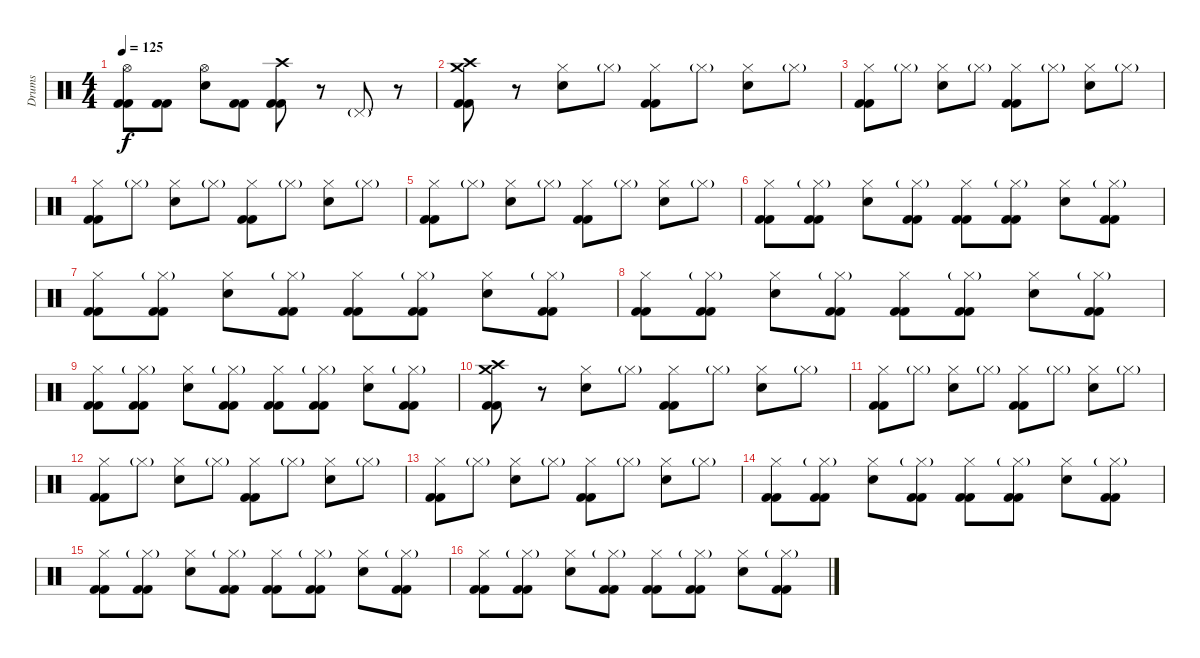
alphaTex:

\track ("Drums" "Drums") {instrument percussion}
\staff {score}
\articulation defaults
\ts (4 4)
\tempo 125
\clef neutral
\ks c
("Hi-Hat (open)" "Kick (hit) 2" "Kick (hit) 2").8{dy f} ("Kick (hit) 2" "Kick (hit) 2").8 ("Hi-Hat (open)" "Electric Snare (hit)").8 ("Kick (hit) 2" "Kick (hit) 2").8 ("Crash high (hit)" "Kick (hit) 2" "Kick (hit) 2").8 r.8 "Pedal Hi-Hat (hit)"{g}.8 r.8 |
("Crash high (hit)" "Crash medium (hit)" "Kick (hit) 2" "Kick (hit) 2").8 r.8 ("Hi-Hat (closed)" "Electric Snare (hit)").8 "Hi-Hat (closed)"{g}.8 ("Hi-Hat (closed)" "Kick (hit) 2" "Kick (hit) 2").8 "Hi-Hat (closed)"{g}.8 ("Hi-Hat (closed)" "Electric Snare (hit)").8 "Hi-Hat (closed)"{g}.8 |
("Hi-Hat (closed)" "Kick (hit) 2" "Kick (hit) 2").8 "Hi-Hat (closed)"{g}.8 ("Hi-Hat (closed)" "Electric Snare (hit)").8 "Hi-Hat (closed)"{g}.8 ("Hi-Hat (closed)" "Kick (hit) 2" "Kick (hit) 2").8 "Hi-Hat (closed)"{g}.8 ("Hi-Hat (closed)" "Electric Snare (hit)").8 "Hi-Hat (closed)"{g}.8 |
("Hi-Hat (closed)" "Kick (hit) 2" "Kick (hit) 2").8 "Hi-Hat (closed)"{g}.8 ("Hi-Hat (closed)" "Electric Snare (hit)").8 "Hi-Hat (closed)"{g}.8 ("Hi-Hat (closed)" "Kick (hit) 2" "Kick (hit) 2").8 "Hi-Hat (closed)"{g}.8 ("Hi-Hat (closed)" "Electric Snare (hit)").8 "Hi-Hat (closed)"{g}.8 |
("Hi-Hat (closed)" "Kick (hit) 2" "Kick (hit) 2").8 "Hi-Hat (closed)"{g}.8 ("Hi-Hat (closed)" "Electric Snare (hit)").8 "Hi-Hat (closed)"{g}.8 ("Hi-Hat (closed)" "Kick (hit) 2" "Kick (hit) 2").8 "Hi-Hat (closed)"{g}.8 ("Hi-Hat (closed)" "Electric Snare (hit)").8 "Hi-Hat (closed)"{g}.8 |
("Hi-Hat (closed)" "Kick (hit) 2" "Kick (hit) 2").8 ("Hi-Hat (closed)"{g} "Kick (hit) 2" "Kick (hit) 2").8 ("Hi-Hat (closed)" "Electric Snare (hit)").8 ("Hi-Hat (closed)"{g} "Kick (hit) 2" "Kick (hit) 2").8 ("Hi-Hat (closed)" "Kick (hit) 2" "Kick (hit) 2").8 ("Hi-Hat (closed)"{g} "Kick (hit) 2" "Kick (hit) 2").8 ("Hi-Hat (closed)" "Electric Snare (hit)").8 ("Hi-Hat (closed)"{g} "Kick (hit) 2" "Kick (hit) 2").8 |
("Hi-Hat (closed)" "Kick (hit) 2" "Kick (hit) 2").8 ("Hi-Hat (closed)"{g} "Kick (hit) 2" "Kick (hit) 2").8 ("Hi-Hat (closed)" "Electric Snare (hit)").8 ("Hi-Hat (closed)"{g} "Kick (hit) 2" "Kick (hit) 2").8 ("Hi-Hat (closed)" "Kick (hit) 2" "Kick (hit) 2").8 ("Hi-Hat (closed)"{g} "Kick (hit) 2" "Kick (hit) 2").8 ("Hi-Hat (closed)" "Electric Snare (hit)").8 ("Hi-Hat (closed)"{g} "Kick (hit) 2" "Kick (hit) 2").8 |
("Hi-Hat (closed)" "Kick (hit) 2" "Kick (hit) 2").8 ("Hi-Hat (closed)"{g} "Kick (hit) 2" "Kick (hit) 2").8 ("Hi-Hat (closed)" "Electric Snare (hit)").8 ("Hi-Hat (closed)"{g} "Kick (hit) 2" "Kick (hit) 2").8 ("Hi-Hat (closed)" "Kick (hit) 2" "Kick (hit) 2").8 ("Hi-Hat (closed)"{g} "Kick (hit) 2" "Kick (hit) 2").8 ("Hi-Hat (closed)" "Electric Snare (hit)").8 ("Hi-Hat (closed)"{g} "Kick (hit) 2" "Kick (hit) 2").8 |
("Hi-Hat (closed)" "Kick (hit) 2" "Kick (hit) 2").8 ("Hi-Hat (closed)"{g} "Kick (hit) 2" "Kick (hit) 2").8 ("Hi-Hat (closed)" "Electric Snare (hit)").8 ("Hi-Hat (closed)"{g} "Kick (hit) 2" "Kick (hit) 2").8 ("Hi-Hat (closed)" "Kick (hit) 2" "Kick (hit) 2").8 ("Hi-Hat (closed)"{g} "Kick (hit) 2" "Kick (hit) 2").8 ("Hi-Hat (closed)" "Electric Snare (hit)").8 ("Hi-Hat (closed)"{g} "Kick (hit) 2" "Kick (hit) 2").8 |
("Crash high (hit)" "Crash medium (hit)" "Kick (hit) 2" "Kick (hit) 2").8 r.8 ("Hi-Hat (closed)" "Electric Snare (hit)").8 "Hi-Hat (closed)"{g}.8 ("Hi-Hat (closed)" "Kick (hit) 2" "Kick (hit) 2").8 "Hi-Hat (closed)"{g}.8 ("Hi-Hat (closed)" "Electric Snare (hit)").8 "Hi-Hat (closed)"{g}.8 |
("Hi-Hat (closed)" "Kick (hit) 2" "Kick (hit) 2").8 "Hi-Hat (closed)"{g}.8 ("Hi-Hat (closed)" "Electric Snare (hit)").8 "Hi-Hat (closed)"{g}.8 ("Hi-Hat (closed)" "Kick (hit) 2" "Kick (hit) 2").8 "Hi-Hat (closed)"{g}.8 ("Hi-Hat (closed)" "Electric Snare (hit)").8 "Hi-Hat (closed)"{g}.8 |
("Hi-Hat (closed)" "Kick (hit) 2" "Kick (hit) 2").8 "Hi-Hat (closed)"{g}.8 ("Hi-Hat (closed)" "Electric Snare (hit)").8 "Hi-Hat (closed)"{g}.8 ("Hi-Hat (closed)" "Kick (hit) 2" "Kick (hit) 2").8 "Hi-Hat (closed)"{g}.8 ("Hi-Hat (closed)" "Electric Snare (hit)").8 "Hi-Hat (closed)"{g}.8 |
("Hi-Hat (closed)" "Kick (hit) 2" "Kick (hit) 2").8 "Hi-Hat (closed)"{g}.8 ("Hi-Hat (closed)" "Electric Snare (hit)").8 "Hi-Hat (closed)"{g}.8 ("Hi-Hat (closed)" "Kick (hit) 2" "Kick (hit) 2").8 "Hi-Hat (closed)"{g}.8 ("Hi-Hat (closed)" "Electric Snare (hit)").8 "Hi-Hat (closed)"{g}.8 |
("Hi-Hat (closed)" "Kick (hit) 2" "Kick (hit) 2").8 ("Hi-Hat (closed)"{g} "Kick (hit) 2" "Kick (hit) 2").8 ("Hi-Hat (closed)" "Electric Snare (hit)").8 ("Hi-Hat (closed)"{g} "Kick (hit) 2" "Kick (hit) 2").8 ("Hi-Hat (closed)" "Kick (hit) 2" "Kick (hit) 2").8 ("Hi-Hat (closed)"{g} "Kick (hit) 2" "Kick (hit) 2").8 ("Hi-Hat (closed)" "Electric Snare (hit)").8 ("Hi-Hat (closed)"{g} "Kick (hit) 2" "Kick (hit) 2").8 |
("Hi-Hat (closed)" "Kick (hit) 2" "Kick (hit) 2").8 ("Hi-Hat (closed)"{g} "Kick (hit) 2" "Kick (hit) 2").8 ("Hi-Hat (closed)" "Electric Snare (hit)").8 ("Hi-Hat (closed)"{g} "Kick (hit) 2" "Kick (hit) 2").8 ("Hi-Hat (closed)" "Kick (hit) 2" "Kick (hit) 2").8 ("Hi-Hat (closed)"{g} "Kick (hit) 2" "Kick (hit) 2").8 ("Hi-Hat (closed)" "Electric Snare (hit)").8 ("Hi-Hat (closed)"{g} "Kick (hit) 2" "Kick (hit) 2").8 |
("Hi-Hat (closed)" "Kick (hit) 2" "Kick (hit) 2").8 ("Hi-Hat (closed)"{g} "Kick (hit) 2" "Kick (hit) 2").8 ("Hi-Hat (closed)" "Electric Snare (hit)").8 ("Hi-Hat (closed)"{g} "Kick (hit) 2" "Kick (hit) 2").8 ("Hi-Hat (closed)" "Kick (hit) 2" "Kick (hit) 2").8 ("Hi-Hat (closed)"{g} "Kick (hit) 2" "Kick (hit) 2").8 ("Hi-Hat (closed)" "Electric Snare (hit)").8 ("Hi-Hat (closed)"{g} "Kick (hit) 2" "Kick (hit) 2").8
